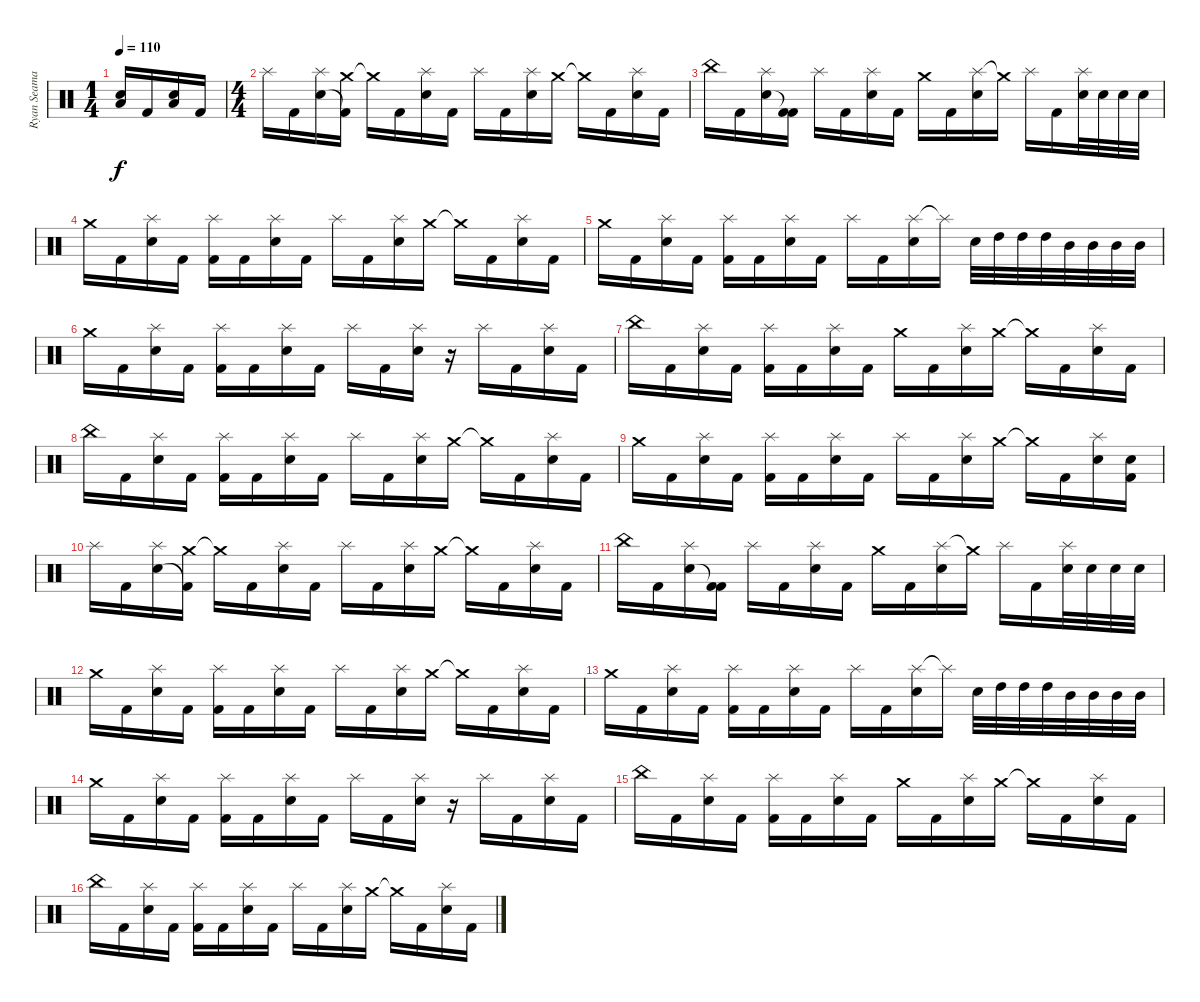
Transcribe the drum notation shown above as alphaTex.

\track ("Ryan Seaman-Drums" "Ryan Seama") {instrument percussion}
\staff {score}
\articulation defaults
\ts (1 4)
\tempo 110
\clef neutral
\ks c
("Low Floor Tom (hit)" "Electric Snare (hit)").16{dy f} "Kick (hit) 2".16 ("Low Floor Tom (hit)" "Electric Snare (hit)").16 "Kick (hit) 2".16 |
\ts (4 4)
"Splash (hit)".16 "Kick (hit) 2".16 ("Splash (hit)" "Electric Snare (hit)").16 ("Crash medium (hit)" "Kick (hit) 2"{t}).16 "Crash medium (hit)"{t}.16 "Kick (hit) 2".16 ("Splash (hit)" "Electric Snare (hit)").16 "Kick (hit) 2".16 "Splash (hit)".16 "Kick (hit) 2".16 ("Splash (hit)" "Electric Snare (hit)").16 "Crash medium (hit)".16 "Crash medium (hit)"{t}.16 "Kick (hit) 2".16 ("Electric Snare (hit)" "Splash (hit)").16 "Kick (hit) 2".16 |
"China (hit)".16 "Kick (hit) 2".16 ("Splash (hit)" "Electric Snare (hit)").16 ("Kick (hit) 2" "Kick (hit) 2"{t}).16 "Splash (hit)".16 "Kick (hit) 2".16 ("Splash (hit)" "Electric Snare (hit)").16 "Kick (hit) 2".16 "Crash medium (hit)".16 "Kick (hit) 2".16 ("Splash (hit)" "Electric Snare (hit)").16 "Crash medium (hit)"{t}.16 "Splash (hit)".16 "Kick (hit) 2".16 ("Electric Snare (hit)" "Splash (hit)").32 "Electric Snare (hit)".32 "Electric Snare (hit)".32 "Electric Snare (hit)".32 |
"Crash medium (hit)".16 "Kick (hit) 2".16 ("Splash (hit)" "Electric Snare (hit)").16 "Kick (hit) 2".16 ("Splash (hit)" "Kick (hit) 2").16 "Kick (hit) 2".16 ("Splash (hit)" "Electric Snare (hit)").16 "Kick (hit) 2".16 "Splash (hit)".16 "Kick (hit) 2".16 ("Splash (hit)" "Electric Snare (hit)").16 "Crash medium (hit)".16 "Crash medium (hit)"{t}.16 "Kick (hit) 2".16 ("Electric Snare (hit)" "Splash (hit)").16 "Kick (hit) 2".16 |
"Crash medium (hit)".16 "Kick (hit) 2".16 ("Splash (hit)" "Electric Snare (hit)").16 "Kick (hit) 2".16 ("Splash (hit)" "Kick (hit) 2").16 "Kick (hit) 2".16 ("Splash (hit)" "Electric Snare (hit)").16 "Kick (hit) 2".16 "Splash (hit)".16 "Kick (hit) 2".16 ("Splash (hit)" "Electric Snare (hit)").16 "Splash (hit)"{t}.16 "Electric Snare (hit)".32 "High Tom (hit)".32 "High Tom (hit)".32 "High Tom (hit)".32 "Mid Tom (hit)".32 "Mid Tom (hit)".32 "Mid Tom (hit)".32 "Mid Tom (hit)".32 |
"Crash medium (hit)".16 "Kick (hit) 2".16 ("Splash (hit)" "Electric Snare (hit)").16 "Kick (hit) 2".16 ("Splash (hit)" "Kick (hit) 2").16 "Kick (hit) 2".16 ("Splash (hit)" "Electric Snare (hit)").16 "Kick (hit) 2".16 "Splash (hit)".16 "Kick (hit) 2".16 ("Splash (hit)" "Electric Snare (hit)").16 r.16 "Splash (hit)".16 "Kick (hit) 2".16 ("Electric Snare (hit)" "Splash (hit)").16 "Kick (hit) 2".16 |
"China (hit)".16 "Kick (hit) 2".16 ("Splash (hit)" "Electric Snare (hit)").16 "Kick (hit) 2".16 ("Splash (hit)" "Kick (hit) 2").16 "Kick (hit) 2".16 ("Splash (hit)" "Electric Snare (hit)").16 "Kick (hit) 2".16 "Crash medium (hit)".16 "Kick (hit) 2".16 ("Splash (hit)" "Electric Snare (hit)").16 "Crash medium (hit)".16 "Crash medium (hit)"{t}.16 "Kick (hit) 2".16 ("Electric Snare (hit)" "Splash (hit)").16 "Kick (hit) 2".16 |
"China (hit)".16 "Kick (hit) 2".16 ("Splash (hit)" "Electric Snare (hit)").16 "Kick (hit) 2".16 ("Splash (hit)" "Kick (hit) 2").16 "Kick (hit) 2".16 ("Splash (hit)" "Electric Snare (hit)").16 "Kick (hit) 2".16 "Splash (hit)".16 "Kick (hit) 2".16 ("Splash (hit)" "Electric Snare (hit)").16 "Crash medium (hit)".16 "Crash medium (hit)"{t}.16 "Kick (hit) 2".16 ("Electric Snare (hit)" "Splash (hit)").16 "Kick (hit) 2".16 |
"Crash medium (hit)".16 "Kick (hit) 2".16 ("Splash (hit)" "Electric Snare (hit)").16 "Kick (hit) 2".16 ("Splash (hit)" "Kick (hit) 2").16 "Kick (hit) 2".16 ("Splash (hit)" "Electric Snare (hit)").16 "Kick (hit) 2".16 "Splash (hit)".16 "Kick (hit) 2".16 ("Splash (hit)" "Electric Snare (hit)").16 "Crash medium (hit)".16 "Crash medium (hit)"{t}.16 "Kick (hit) 2".16 ("Electric Snare (hit)" "Splash (hit)").16 ("Electric Snare (hit)" "Kick (hit) 2").16 |
"Splash (hit)".16 "Kick (hit) 2".16 ("Splash (hit)" "Electric Snare (hit)").16 ("Crash medium (hit)" "Kick (hit) 2"{t}).16 "Crash medium (hit)"{t}.16 "Kick (hit) 2".16 ("Splash (hit)" "Electric Snare (hit)").16 "Kick (hit) 2".16 "Splash (hit)".16 "Kick (hit) 2".16 ("Splash (hit)" "Electric Snare (hit)").16 "Crash medium (hit)".16 "Crash medium (hit)"{t}.16 "Kick (hit) 2".16 ("Electric Snare (hit)" "Splash (hit)").16 "Kick (hit) 2".16 |
"China (hit)".16 "Kick (hit) 2".16 ("Splash (hit)" "Electric Snare (hit)").16 ("Kick (hit) 2" "Kick (hit) 2"{t}).16 "Splash (hit)".16 "Kick (hit) 2".16 ("Splash (hit)" "Electric Snare (hit)").16 "Kick (hit) 2".16 "Crash medium (hit)".16 "Kick (hit) 2".16 ("Splash (hit)" "Electric Snare (hit)").16 "Crash medium (hit)"{t}.16 "Splash (hit)".16 "Kick (hit) 2".16 ("Electric Snare (hit)" "Splash (hit)").32 "Electric Snare (hit)".32 "Electric Snare (hit)".32 "Electric Snare (hit)".32 |
"Crash medium (hit)".16 "Kick (hit) 2".16 ("Splash (hit)" "Electric Snare (hit)").16 "Kick (hit) 2".16 ("Splash (hit)" "Kick (hit) 2").16 "Kick (hit) 2".16 ("Splash (hit)" "Electric Snare (hit)").16 "Kick (hit) 2".16 "Splash (hit)".16 "Kick (hit) 2".16 ("Splash (hit)" "Electric Snare (hit)").16 "Crash medium (hit)".16 "Crash medium (hit)"{t}.16 "Kick (hit) 2".16 ("Electric Snare (hit)" "Splash (hit)").16 "Kick (hit) 2".16 |
"Crash medium (hit)".16 "Kick (hit) 2".16 ("Splash (hit)" "Electric Snare (hit)").16 "Kick (hit) 2".16 ("Splash (hit)" "Kick (hit) 2").16 "Kick (hit) 2".16 ("Splash (hit)" "Electric Snare (hit)").16 "Kick (hit) 2".16 "Splash (hit)".16 "Kick (hit) 2".16 ("Splash (hit)" "Electric Snare (hit)").16 "Splash (hit)"{t}.16 "Electric Snare (hit)".32 "High Tom (hit)".32 "High Tom (hit)".32 "High Tom (hit)".32 "Mid Tom (hit)".32 "Mid Tom (hit)".32 "Mid Tom (hit)".32 "Mid Tom (hit)".32 |
"Crash medium (hit)".16 "Kick (hit) 2".16 ("Splash (hit)" "Electric Snare (hit)").16 "Kick (hit) 2".16 ("Splash (hit)" "Kick (hit) 2").16 "Kick (hit) 2".16 ("Splash (hit)" "Electric Snare (hit)").16 "Kick (hit) 2".16 "Splash (hit)".16 "Kick (hit) 2".16 ("Splash (hit)" "Electric Snare (hit)").16 r.16 "Splash (hit)".16 "Kick (hit) 2".16 ("Electric Snare (hit)" "Splash (hit)").16 "Kick (hit) 2".16 |
"China (hit)".16 "Kick (hit) 2".16 ("Splash (hit)" "Electric Snare (hit)").16 "Kick (hit) 2".16 ("Splash (hit)" "Kick (hit) 2").16 "Kick (hit) 2".16 ("Splash (hit)" "Electric Snare (hit)").16 "Kick (hit) 2".16 "Crash medium (hit)".16 "Kick (hit) 2".16 ("Splash (hit)" "Electric Snare (hit)").16 "Crash medium (hit)".16 "Crash medium (hit)"{t}.16 "Kick (hit) 2".16 ("Electric Snare (hit)" "Splash (hit)").16 "Kick (hit) 2".16 |
"China (hit)".16 "Kick (hit) 2".16 ("Splash (hit)" "Electric Snare (hit)").16 "Kick (hit) 2".16 ("Splash (hit)" "Kick (hit) 2").16 "Kick (hit) 2".16 ("Splash (hit)" "Electric Snare (hit)").16 "Kick (hit) 2".16 "Splash (hit)".16 "Kick (hit) 2".16 ("Splash (hit)" "Electric Snare (hit)").16 "Crash medium (hit)".16 "Crash medium (hit)"{t}.16 "Kick (hit) 2".16 ("Electric Snare (hit)" "Splash (hit)").16 "Kick (hit) 2".16
